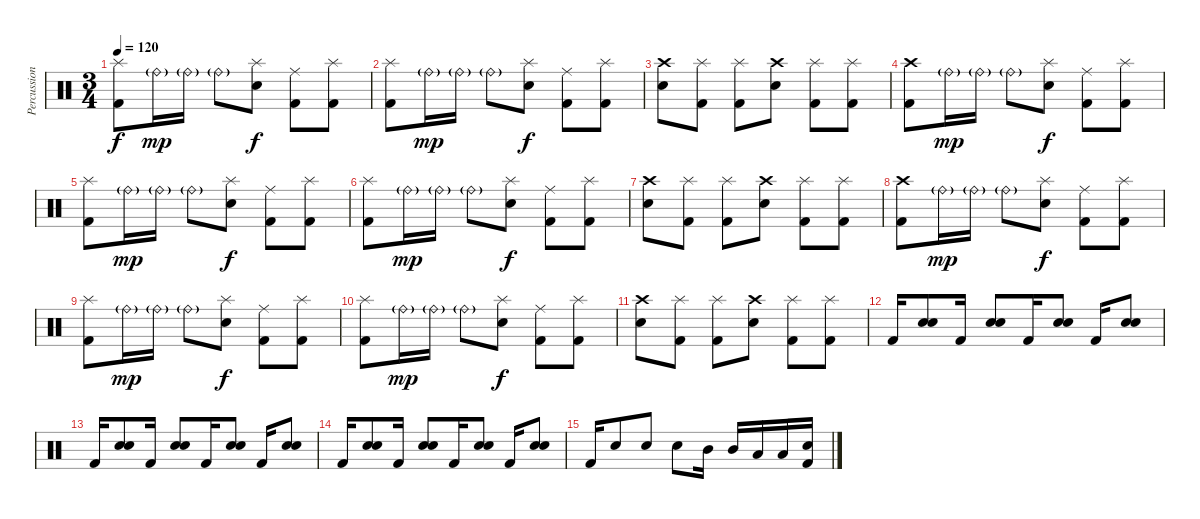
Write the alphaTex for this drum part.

\track ("Percussion" "Percussion") {instrument percussion}
\staff {score}
\articulation defaults
\ts (3 4)
\tempo 120
\clef neutral
\ks c
("Splash (hit)" "Kick (hit) 2").8{dy f} "Ride (bell)"{g}.16{dy mp} "Ride (bell)"{g}.16 "Ride (bell)"{g}.8 ("Splash (hit)" "Electric Snare (hit)").8{dy f} ("Ride (middle)" "Kick (hit) 2").8 ("Splash (hit)" "Kick (hit) 2").8 |
("Splash (hit)" "Kick (hit) 2").8 "Ride (bell)"{g}.16{dy mp} "Ride (bell)"{g}.16 "Ride (bell)"{g}.8 ("Splash (hit)" "Electric Snare (hit)").8{dy f} ("Ride (middle)" "Kick (hit) 2").8 ("Splash (hit)" "Kick (hit) 2").8 |
("Crash high (hit)" "Electric Snare (hit)").8 ("Splash (hit)" "Kick (hit) 2").8 ("Splash (hit)" "Kick (hit) 2").8 ("Crash high (hit)" "Electric Snare (hit)").8 ("Splash (hit)" "Kick (hit) 2").8 ("Splash (hit)" "Kick (hit) 2").8 |
("Crash high (hit)" "Kick (hit) 2").8 "Ride (bell)"{g}.16{dy mp} "Ride (bell)"{g}.16 "Ride (bell)"{g}.8 ("Splash (hit)" "Electric Snare (hit)").8{dy f} ("Ride (middle)" "Kick (hit) 2").8 ("Splash (hit)" "Kick (hit) 2").8 |
("Splash (hit)" "Kick (hit) 2").8 "Ride (bell)"{g}.16{dy mp} "Ride (bell)"{g}.16 "Ride (bell)"{g}.8 ("Splash (hit)" "Electric Snare (hit)").8{dy f} ("Ride (middle)" "Kick (hit) 2").8 ("Splash (hit)" "Kick (hit) 2").8 |
("Splash (hit)" "Kick (hit) 2").8 "Ride (bell)"{g}.16{dy mp} "Ride (bell)"{g}.16 "Ride (bell)"{g}.8 ("Splash (hit)" "Electric Snare (hit)").8{dy f} ("Ride (middle)" "Kick (hit) 2").8 ("Splash (hit)" "Kick (hit) 2").8 |
("Crash high (hit)" "Electric Snare (hit)").8 ("Splash (hit)" "Kick (hit) 2").8 ("Splash (hit)" "Kick (hit) 2").8 ("Crash high (hit)" "Electric Snare (hit)").8 ("Splash (hit)" "Kick (hit) 2").8 ("Splash (hit)" "Kick (hit) 2").8 |
("Crash high (hit)" "Kick (hit) 2").8 "Ride (bell)"{g}.16{dy mp} "Ride (bell)"{g}.16 "Ride (bell)"{g}.8 ("Splash (hit)" "Electric Snare (hit)").8{dy f} ("Ride (middle)" "Kick (hit) 2").8 ("Splash (hit)" "Kick (hit) 2").8 |
("Splash (hit)" "Kick (hit) 2").8 "Ride (bell)"{g}.16{dy mp} "Ride (bell)"{g}.16 "Ride (bell)"{g}.8 ("Splash (hit)" "Electric Snare (hit)").8{dy f} ("Ride (middle)" "Kick (hit) 2").8 ("Splash (hit)" "Kick (hit) 2").8 |
("Splash (hit)" "Kick (hit) 2").8 "Ride (bell)"{g}.16{dy mp} "Ride (bell)"{g}.16 "Ride (bell)"{g}.8 ("Splash (hit)" "Electric Snare (hit)").8{dy f} ("Ride (middle)" "Kick (hit) 2").8 ("Splash (hit)" "Kick (hit) 2").8 |
("Crash high (hit)" "Electric Snare (hit)").8 ("Splash (hit)" "Kick (hit) 2").8 ("Splash (hit)" "Kick (hit) 2").8 ("Crash high (hit)" "Electric Snare (hit)").8 ("Splash (hit)" "Kick (hit) 2").8 ("Splash (hit)" "Kick (hit) 2").8 |
"Kick (hit) 2".16 ("Electric Snare (hit)" "Electric Snare (hit)").8 "Kick (hit) 2".16 ("Electric Snare (hit)" "Electric Snare (hit)").8 "Kick (hit) 2".16 ("Electric Snare (hit)" "Electric Snare (hit)").8 "Kick (hit) 2".16 ("Electric Snare (hit)" "Electric Snare (hit)").8 |
"Kick (hit) 2".16 ("Electric Snare (hit)" "Electric Snare (hit)").8 "Kick (hit) 2".16 ("Electric Snare (hit)" "Electric Snare (hit)").8 "Kick (hit) 2".16 ("Electric Snare (hit)" "Electric Snare (hit)").8 "Kick (hit) 2".16 ("Electric Snare (hit)" "Electric Snare (hit)").8 |
"Kick (hit) 2".16 ("Electric Snare (hit)" "Electric Snare (hit)").8 "Kick (hit) 2".16 ("Electric Snare (hit)" "Electric Snare (hit)").8 "Kick (hit) 2".16 ("Electric Snare (hit)" "Electric Snare (hit)").8 "Kick (hit) 2".16 ("Electric Snare (hit)" "Electric Snare (hit)").8 |
"Kick (hit) 2".16 "Electric Snare (hit)".8 "Electric Snare (hit)".8 "Electric Snare (hit)".8 "Mid Tom (hit)".16 "Mid Tom (hit)".16 "Low Tom (hit)".16 "Low Tom (hit)".16 ("Electric Snare (hit)" "Kick (hit) 2").16
